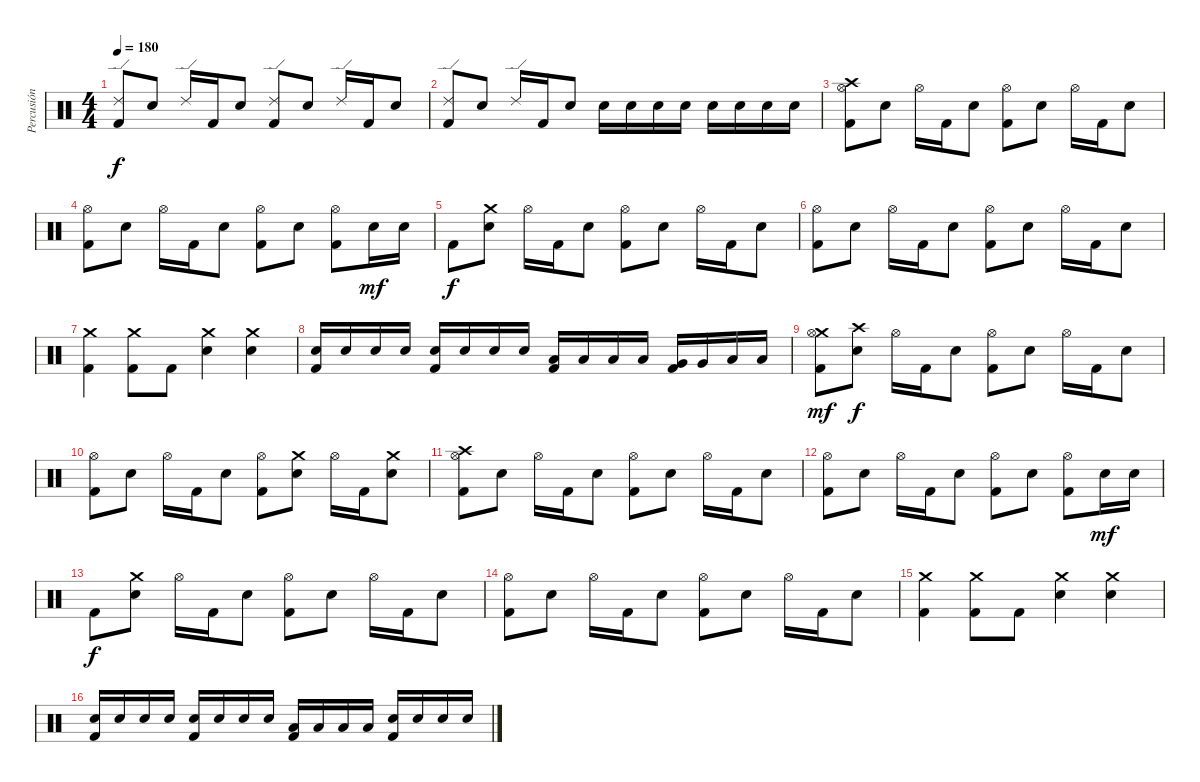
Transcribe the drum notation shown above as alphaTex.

\track ("Percusión" "Percusión") {instrument percussion}
\staff {score}
\articulation defaults
\ts (4 4)
\tempo 180
\clef neutral
\ks c
("Ride (edge) 2" "Kick (hit) 2").8{dy f} "Electric Snare (hit)".8 "Ride (edge) 2".16 "Kick (hit) 2".16 "Electric Snare (hit)".8 ("Ride (edge) 2" "Kick (hit) 2").8 "Electric Snare (hit)".8 "Ride (edge) 2".16 "Kick (hit) 2".16 "Electric Snare (hit)".8 |
("Ride (edge) 2" "Kick (hit) 2").8 "Electric Snare (hit)".8 "Ride (edge) 2".16 "Kick (hit) 2".16 "Electric Snare (hit)".8 "Electric Snare (hit)".16 "Electric Snare (hit)".16 "Electric Snare (hit)".16 "Electric Snare (hit)".16 "Electric Snare (hit)".16 "Electric Snare (hit)".16 "Electric Snare (hit)".16 "Electric Snare (hit)".16 |
("Crash high (hit)" "Hi-Hat (open)" "Kick (hit) 2").8 "Electric Snare (hit)".8 "Hi-Hat (open)".16 "Kick (hit) 2".16 "Electric Snare (hit)".8 ("Hi-Hat (open)" "Kick (hit) 2").8 "Electric Snare (hit)".8 "Hi-Hat (open)".16 "Kick (hit) 2".16 "Electric Snare (hit)".8 |
("Hi-Hat (open)" "Kick (hit) 2").8 "Electric Snare (hit)".8 "Hi-Hat (open)".16 "Kick (hit) 2".16 "Electric Snare (hit)".8 ("Hi-Hat (open)" "Kick (hit) 2").8 "Electric Snare (hit)".8 ("Hi-Hat (open)" "Kick (hit) 2").8 "Electric Snare (hit)".16{dy mf} "Electric Snare (hit)".16 |
"Kick (hit) 2".8{dy f} ("Crash medium (hit)" "Electric Snare (hit)").8 "Hi-Hat (open)".16 "Kick (hit) 2".16 "Electric Snare (hit)".8 ("Hi-Hat (open)" "Kick (hit) 2").8 "Electric Snare (hit)".8 "Hi-Hat (open)".16 "Kick (hit) 2".16 "Electric Snare (hit)".8 |
("Hi-Hat (open)" "Kick (hit) 2").8 "Electric Snare (hit)".8 "Hi-Hat (open)".16 "Kick (hit) 2".16 "Electric Snare (hit)".8 ("Hi-Hat (open)" "Kick (hit) 2").8 "Electric Snare (hit)".8 "Hi-Hat (open)".16 "Kick (hit) 2".16 "Electric Snare (hit)".8 |
("Crash medium (hit)" "Kick (hit) 2").4 ("Crash medium (hit)" "Kick (hit) 2").8 "Kick (hit) 2".8 ("Crash medium (hit)" "Electric Snare (hit)").4 ("Crash medium (hit)" "Electric Snare (hit)").4 |
("Electric Snare (hit)" "Kick (hit) 2").16 "Electric Snare (hit)".16 "Electric Snare (hit)".16 "Electric Snare (hit)".16 ("Electric Snare (hit)" "Kick (hit) 2").16 "Electric Snare (hit)".16 "Electric Snare (hit)".16 "Electric Snare (hit)".16 ("Low Tom (hit)" "Kick (hit) 2").16 "Low Tom (hit)".16 "Low Tom (hit)".16 "Low Tom (hit)".16 ("Very Low Tom (hit)" "Kick (hit) 2").16 "Very Low Tom (hit)".16 "Low Floor Tom (hit)".16 "Low Floor Tom (hit)".16 |
("Crash medium (hit)" "Hi-Hat (open)" "Kick (hit) 2").8{dy mf} ("Crash high (hit)" "Electric Snare (hit)").8{dy f} "Hi-Hat (open)".16 "Kick (hit) 2".16 "Electric Snare (hit)".8 ("Hi-Hat (open)" "Kick (hit) 2").8 "Electric Snare (hit)".8 "Hi-Hat (open)".16 "Kick (hit) 2".16 "Electric Snare (hit)".8 |
("Hi-Hat (open)" "Kick (hit) 2").8 "Electric Snare (hit)".8 "Hi-Hat (open)".16 "Kick (hit) 2".16 "Electric Snare (hit)".8 ("Hi-Hat (open)" "Kick (hit) 2").8 ("Crash medium (hit)" "Electric Snare (hit)").8 "Hi-Hat (open)".16 "Kick (hit) 2".16 ("Crash medium (hit)" "Electric Snare (hit)").8 |
("Crash high (hit)" "Hi-Hat (open)" "Kick (hit) 2").8 "Electric Snare (hit)".8 "Hi-Hat (open)".16 "Kick (hit) 2".16 "Electric Snare (hit)".8 ("Hi-Hat (open)" "Kick (hit) 2").8 "Electric Snare (hit)".8 "Hi-Hat (open)".16 "Kick (hit) 2".16 "Electric Snare (hit)".8 |
("Hi-Hat (open)" "Kick (hit) 2").8 "Electric Snare (hit)".8 "Hi-Hat (open)".16 "Kick (hit) 2".16 "Electric Snare (hit)".8 ("Hi-Hat (open)" "Kick (hit) 2").8 "Electric Snare (hit)".8 ("Hi-Hat (open)" "Kick (hit) 2").8 "Electric Snare (hit)".16{dy mf} "Electric Snare (hit)".16 |
"Kick (hit) 2".8{dy f} ("Crash medium (hit)" "Electric Snare (hit)").8 "Hi-Hat (open)".16 "Kick (hit) 2".16 "Electric Snare (hit)".8 ("Hi-Hat (open)" "Kick (hit) 2").8 "Electric Snare (hit)".8 "Hi-Hat (open)".16 "Kick (hit) 2".16 "Electric Snare (hit)".8 |
("Hi-Hat (open)" "Kick (hit) 2").8 "Electric Snare (hit)".8 "Hi-Hat (open)".16 "Kick (hit) 2".16 "Electric Snare (hit)".8 ("Hi-Hat (open)" "Kick (hit) 2").8 "Electric Snare (hit)".8 "Hi-Hat (open)".16 "Kick (hit) 2".16 "Electric Snare (hit)".8 |
("Crash medium (hit)" "Kick (hit) 2").4 ("Crash medium (hit)" "Kick (hit) 2").8 "Kick (hit) 2".8 ("Crash medium (hit)" "Electric Snare (hit)").4 ("Crash medium (hit)" "Electric Snare (hit)").4 |
("Electric Snare (hit)" "Kick (hit) 2").16 "Electric Snare (hit)".16 "Electric Snare (hit)".16 "Electric Snare (hit)".16 ("Electric Snare (hit)" "Kick (hit) 2").16 "Electric Snare (hit)".16 "Electric Snare (hit)".16 "Electric Snare (hit)".16 ("Low Tom (hit)" "Kick (hit) 2").16 "Low Tom (hit)".16 "Low Tom (hit)".16 "Low Tom (hit)".16 ("Electric Snare (hit)" "Kick (hit) 2").16 "Electric Snare (hit)".16 "Electric Snare (hit)".16 "Electric Snare (hit)".16
